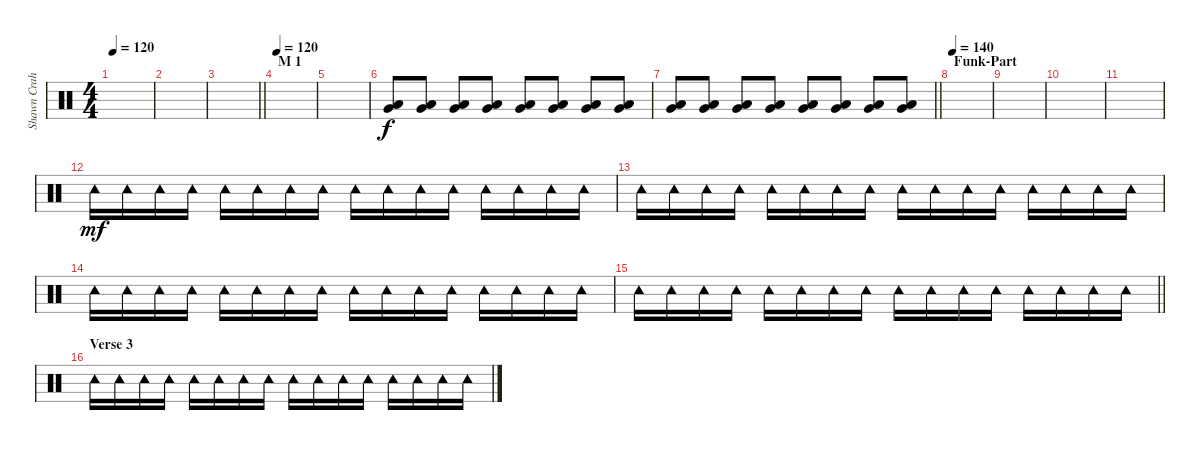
\track ("Shawn Crahan" "Shawn Crah") {instrument percussion}
\staff {score}
\articulation defaults
\ts (4 4)
\tempo 120
\clef neutral
\ks c
|
|
\barLineRight lightlight
|
\section ("" "M 1")
\tempo 120
|
|
("Very Low Tom (hit)" "Low Floor Tom (hit)").8 ("Very Low Tom (hit)" "Low Floor Tom (hit)").8 ("Very Low Tom (hit)" "Low Floor Tom (hit)").8 ("Very Low Tom (hit)" "Low Floor Tom (hit)").8 ("Very Low Tom (hit)" "Low Floor Tom (hit)").8 ("Very Low Tom (hit)" "Low Floor Tom (hit)").8 ("Very Low Tom (hit)" "Low Floor Tom (hit)").8 ("Very Low Tom (hit)" "Low Floor Tom (hit)").8 |
\barLineRight lightlight
("Very Low Tom (hit)" "Low Floor Tom (hit)").8 ("Very Low Tom (hit)" "Low Floor Tom (hit)").8 ("Very Low Tom (hit)" "Low Floor Tom (hit)").8 ("Very Low Tom (hit)" "Low Floor Tom (hit)").8 ("Very Low Tom (hit)" "Low Floor Tom (hit)").8 ("Very Low Tom (hit)" "Low Floor Tom (hit)").8 ("Very Low Tom (hit)" "Low Floor Tom (hit)").8 ("Very Low Tom (hit)" "Low Floor Tom (hit)").8 |
\section ("" "Funk-Part")
\tempo 140
|
|
|
|
"Tambourine (hit)".16{dy mf} "Tambourine (hit)".16 "Tambourine (hit)".16 "Tambourine (hit)".16 "Tambourine (hit)".16 "Tambourine (hit)".16 "Tambourine (hit)".16 "Tambourine (hit)".16 "Tambourine (hit)".16 "Tambourine (hit)".16 "Tambourine (hit)".16 "Tambourine (hit)".16 "Tambourine (hit)".16 "Tambourine (hit)".16 "Tambourine (hit)".16 "Tambourine (hit)".16 |
"Tambourine (hit)".16 "Tambourine (hit)".16 "Tambourine (hit)".16 "Tambourine (hit)".16 "Tambourine (hit)".16 "Tambourine (hit)".16 "Tambourine (hit)".16 "Tambourine (hit)".16 "Tambourine (hit)".16 "Tambourine (hit)".16 "Tambourine (hit)".16 "Tambourine (hit)".16 "Tambourine (hit)".16 "Tambourine (hit)".16 "Tambourine (hit)".16 "Tambourine (hit)".16 |
"Tambourine (hit)".16 "Tambourine (hit)".16 "Tambourine (hit)".16 "Tambourine (hit)".16 "Tambourine (hit)".16 "Tambourine (hit)".16 "Tambourine (hit)".16 "Tambourine (hit)".16 "Tambourine (hit)".16 "Tambourine (hit)".16 "Tambourine (hit)".16 "Tambourine (hit)".16 "Tambourine (hit)".16 "Tambourine (hit)".16 "Tambourine (hit)".16 "Tambourine (hit)".16 |
\barLineRight lightlight "Tambourine (hit)".16 "Tambourine (hit)".16 "Tambourine (hit)".16 "Tambourine (hit)".16 "Tambourine (hit)".16 "Tambourine (hit)".16 "Tambourine (hit)".16 "Tambourine (hit)".16 "Tambourine (hit)".16 "Tambourine (hit)".16 "Tambourine (hit)".16 "Tambourine (hit)".16 "Tambourine (hit)".16 "Tambourine (hit)".16 "Tambourine (hit)".16 "Tambourine (hit)".16
|
\section ("" "Verse 3")
"Tambourine (hit)".16 "Tambourine (hit)".16 "Tambourine (hit)".16 "Tambourine (hit)".16 "Tambourine (hit)".16 "Tambourine (hit)".16 "Tambourine (hit)".16 "Tambourine (hit)".16 "Tambourine (hit)".16 "Tambourine (hit)".16 "Tambourine (hit)".16 "Tambourine (hit)".16 "Tambourine (hit)".16 "Tambourine (hit)".16 "Tambourine (hit)".16 "Tambourine (hit)".16
